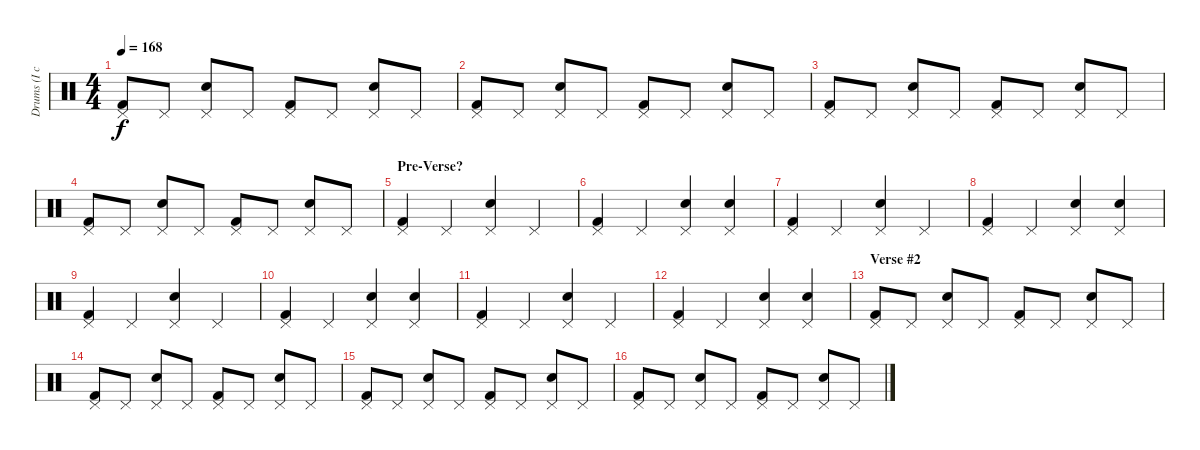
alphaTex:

\track ("Drums (I can't tab drums too well...)" "Drums (I c") {instrument percussion}
\staff {score}
\articulation defaults
\ts (4 4)
\tempo 168
\clef neutral
\ks c
("Pedal Hi-Hat (hit)" "Kick (hit) 2").8{dy f} "Pedal Hi-Hat (hit)".8 ("Pedal Hi-Hat (hit)" "Snare (hit) 2").8 "Pedal Hi-Hat (hit)".8 ("Pedal Hi-Hat (hit)" "Kick (hit) 2").8 "Pedal Hi-Hat (hit)".8 ("Pedal Hi-Hat (hit)" "Snare (hit) 2").8 "Pedal Hi-Hat (hit)".8 |
("Pedal Hi-Hat (hit)" "Kick (hit) 2").8 "Pedal Hi-Hat (hit)".8 ("Pedal Hi-Hat (hit)" "Snare (hit) 2").8 "Pedal Hi-Hat (hit)".8 ("Pedal Hi-Hat (hit)" "Kick (hit) 2").8 "Pedal Hi-Hat (hit)".8 ("Pedal Hi-Hat (hit)" "Snare (hit) 2").8 "Pedal Hi-Hat (hit)".8 |
("Pedal Hi-Hat (hit)" "Kick (hit) 2").8 "Pedal Hi-Hat (hit)".8 ("Pedal Hi-Hat (hit)" "Snare (hit) 2").8 "Pedal Hi-Hat (hit)".8 ("Pedal Hi-Hat (hit)" "Kick (hit) 2").8 "Pedal Hi-Hat (hit)".8 ("Pedal Hi-Hat (hit)" "Snare (hit) 2").8 "Pedal Hi-Hat (hit)".8 |
("Pedal Hi-Hat (hit)" "Kick (hit) 2").8 "Pedal Hi-Hat (hit)".8 ("Pedal Hi-Hat (hit)" "Snare (hit) 2").8 "Pedal Hi-Hat (hit)".8 ("Pedal Hi-Hat (hit)" "Kick (hit) 2").8 "Pedal Hi-Hat (hit)".8 ("Pedal Hi-Hat (hit)" "Snare (hit) 2").8 "Pedal Hi-Hat (hit)".8 |
\section ("" "Pre-Verse?")
("Pedal Hi-Hat (hit)" "Kick (hit) 2").4 "Pedal Hi-Hat (hit)".4 ("Pedal Hi-Hat (hit)" "Snare (hit) 2").4 "Pedal Hi-Hat (hit)".4 |
("Pedal Hi-Hat (hit)" "Kick (hit) 2").4 "Pedal Hi-Hat (hit)".4 ("Pedal Hi-Hat (hit)" "Snare (hit) 2").4 ("Pedal Hi-Hat (hit)" "Snare (hit) 2").4 |
("Pedal Hi-Hat (hit)" "Kick (hit) 2").4 "Pedal Hi-Hat (hit)".4 ("Pedal Hi-Hat (hit)" "Snare (hit) 2").4 "Pedal Hi-Hat (hit)".4 |
("Pedal Hi-Hat (hit)" "Kick (hit) 2").4 "Pedal Hi-Hat (hit)".4 ("Pedal Hi-Hat (hit)" "Snare (hit) 2").4 ("Pedal Hi-Hat (hit)" "Snare (hit) 2").4 |
("Pedal Hi-Hat (hit)" "Kick (hit) 2").4 "Pedal Hi-Hat (hit)".4 ("Pedal Hi-Hat (hit)" "Snare (hit) 2").4 "Pedal Hi-Hat (hit)".4 |
("Pedal Hi-Hat (hit)" "Kick (hit) 2").4 "Pedal Hi-Hat (hit)".4 ("Pedal Hi-Hat (hit)" "Snare (hit) 2").4 ("Pedal Hi-Hat (hit)" "Snare (hit) 2").4 |
("Pedal Hi-Hat (hit)" "Kick (hit) 2").4 "Pedal Hi-Hat (hit)".4 ("Pedal Hi-Hat (hit)" "Snare (hit) 2").4 "Pedal Hi-Hat (hit)".4 |
("Pedal Hi-Hat (hit)" "Kick (hit) 2").4 "Pedal Hi-Hat (hit)".4 ("Pedal Hi-Hat (hit)" "Snare (hit) 2").4 ("Pedal Hi-Hat (hit)" "Snare (hit) 2").4 |
\section ("" "Verse #2")
("Pedal Hi-Hat (hit)" "Kick (hit) 2").8 "Pedal Hi-Hat (hit)".8 ("Pedal Hi-Hat (hit)" "Snare (hit) 2").8 "Pedal Hi-Hat (hit)".8 ("Pedal Hi-Hat (hit)" "Kick (hit) 2").8 "Pedal Hi-Hat (hit)".8 ("Pedal Hi-Hat (hit)" "Snare (hit) 2").8 "Pedal Hi-Hat (hit)".8 |
("Pedal Hi-Hat (hit)" "Kick (hit) 2").8 "Pedal Hi-Hat (hit)".8 ("Pedal Hi-Hat (hit)" "Snare (hit) 2").8 "Pedal Hi-Hat (hit)".8 ("Pedal Hi-Hat (hit)" "Kick (hit) 2").8 "Pedal Hi-Hat (hit)".8 ("Pedal Hi-Hat (hit)" "Snare (hit) 2").8 "Pedal Hi-Hat (hit)".8 |
("Pedal Hi-Hat (hit)" "Kick (hit) 2").8 "Pedal Hi-Hat (hit)".8 ("Pedal Hi-Hat (hit)" "Snare (hit) 2").8 "Pedal Hi-Hat (hit)".8 ("Pedal Hi-Hat (hit)" "Kick (hit) 2").8 "Pedal Hi-Hat (hit)".8 ("Pedal Hi-Hat (hit)" "Snare (hit) 2").8 "Pedal Hi-Hat (hit)".8 |
("Pedal Hi-Hat (hit)" "Kick (hit) 2").8 "Pedal Hi-Hat (hit)".8 ("Pedal Hi-Hat (hit)" "Snare (hit) 2").8 "Pedal Hi-Hat (hit)".8 ("Pedal Hi-Hat (hit)" "Kick (hit) 2").8 "Pedal Hi-Hat (hit)".8 ("Pedal Hi-Hat (hit)" "Snare (hit) 2").8 "Pedal Hi-Hat (hit)".8
